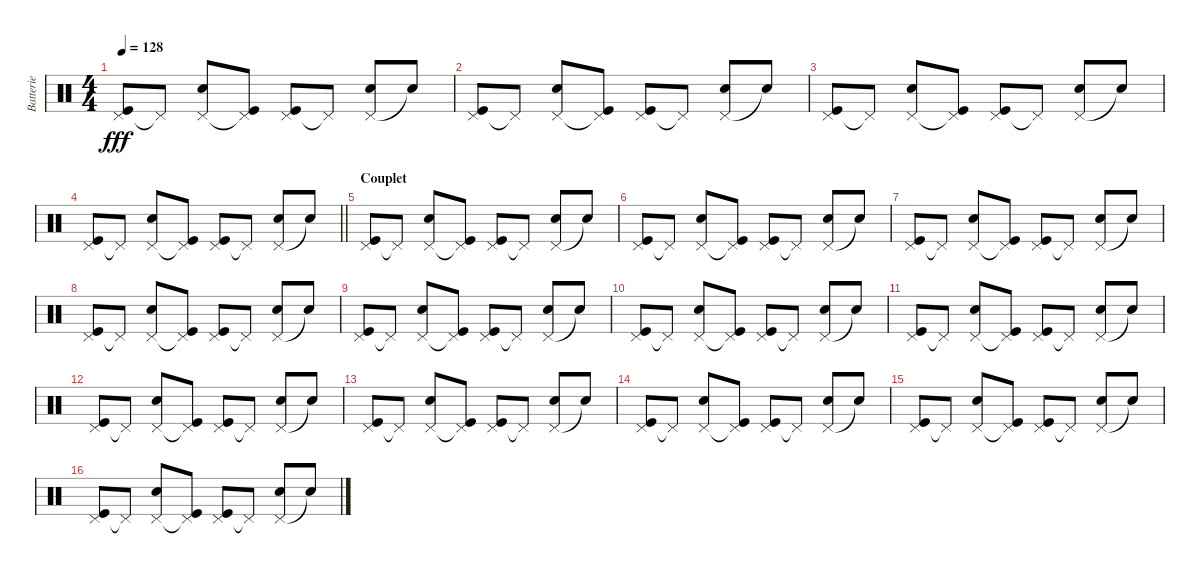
\track ("Batterie" "Batterie") {instrument percussion}
\staff {score}
\articulation defaults
\ts (4 4)
\section ("" "")
\tempo 128
\clef neutral
\ks c
("Pedal Hi-Hat (hit)" "Kick (hit)").8{dy fff} "Pedal Hi-Hat (hit)"{t}.8 ("Pedal Hi-Hat (hit)" "Electric Snare (hit)").8 ("Pedal Hi-Hat (hit)"{t} "Kick (hit)").8 ("Pedal Hi-Hat (hit)" "Kick (hit)").8 "Pedal Hi-Hat (hit)"{t}.8 ("Pedal Hi-Hat (hit)" "Electric Snare (hit)").8 "Snare (hit)"{t}.8 |
("Pedal Hi-Hat (hit)" "Kick (hit)").8 "Pedal Hi-Hat (hit)"{t}.8 ("Pedal Hi-Hat (hit)" "Electric Snare (hit)").8 ("Pedal Hi-Hat (hit)"{t} "Kick (hit)").8 ("Pedal Hi-Hat (hit)" "Kick (hit)").8 "Pedal Hi-Hat (hit)"{t}.8 ("Pedal Hi-Hat (hit)" "Electric Snare (hit)").8 "Snare (hit)"{t}.8 |
("Pedal Hi-Hat (hit)" "Kick (hit)").8 "Pedal Hi-Hat (hit)"{t}.8 ("Pedal Hi-Hat (hit)" "Electric Snare (hit)").8 ("Pedal Hi-Hat (hit)"{t} "Kick (hit)").8 ("Pedal Hi-Hat (hit)" "Kick (hit)").8 "Pedal Hi-Hat (hit)"{t}.8 ("Pedal Hi-Hat (hit)" "Electric Snare (hit)").8 "Snare (hit)"{t}.8 |
\barLineRight lightlight
("Pedal Hi-Hat (hit)" "Kick (hit)").8 "Pedal Hi-Hat (hit)"{t}.8 ("Pedal Hi-Hat (hit)" "Electric Snare (hit)").8 ("Pedal Hi-Hat (hit)"{t} "Kick (hit)").8 ("Pedal Hi-Hat (hit)" "Kick (hit)").8 "Pedal Hi-Hat (hit)"{t}.8 ("Pedal Hi-Hat (hit)" "Electric Snare (hit)").8 "Snare (hit)"{t}.8 |
\section ("" "Couplet")
("Pedal Hi-Hat (hit)" "Kick (hit)").8 "Pedal Hi-Hat (hit)"{t}.8 ("Pedal Hi-Hat (hit)" "Electric Snare (hit)").8 ("Pedal Hi-Hat (hit)"{t} "Kick (hit)").8 ("Pedal Hi-Hat (hit)" "Kick (hit)").8 "Pedal Hi-Hat (hit)"{t}.8 ("Pedal Hi-Hat (hit)" "Electric Snare (hit)").8 "Snare (hit)"{t}.8 |
("Pedal Hi-Hat (hit)" "Kick (hit)").8 "Pedal Hi-Hat (hit)"{t}.8 ("Pedal Hi-Hat (hit)" "Electric Snare (hit)").8 ("Pedal Hi-Hat (hit)"{t} "Kick (hit)").8 ("Pedal Hi-Hat (hit)" "Kick (hit)").8 "Pedal Hi-Hat (hit)"{t}.8 ("Pedal Hi-Hat (hit)" "Electric Snare (hit)").8 "Snare (hit)"{t}.8 |
("Pedal Hi-Hat (hit)" "Kick (hit)").8 "Pedal Hi-Hat (hit)"{t}.8 ("Pedal Hi-Hat (hit)" "Electric Snare (hit)").8 ("Pedal Hi-Hat (hit)"{t} "Kick (hit)").8 ("Pedal Hi-Hat (hit)" "Kick (hit)").8 "Pedal Hi-Hat (hit)"{t}.8 ("Pedal Hi-Hat (hit)" "Electric Snare (hit)").8 "Snare (hit)"{t}.8 |
("Pedal Hi-Hat (hit)" "Kick (hit)").8 "Pedal Hi-Hat (hit)"{t}.8 ("Pedal Hi-Hat (hit)" "Electric Snare (hit)").8 ("Pedal Hi-Hat (hit)"{t} "Kick (hit)").8 ("Pedal Hi-Hat (hit)" "Kick (hit)").8 "Pedal Hi-Hat (hit)"{t}.8 ("Pedal Hi-Hat (hit)" "Electric Snare (hit)").8 "Snare (hit)"{t}.8 |
("Pedal Hi-Hat (hit)" "Kick (hit)").8 "Pedal Hi-Hat (hit)"{t}.8 ("Pedal Hi-Hat (hit)" "Electric Snare (hit)").8 ("Pedal Hi-Hat (hit)"{t} "Kick (hit)").8 ("Pedal Hi-Hat (hit)" "Kick (hit)").8 "Pedal Hi-Hat (hit)"{t}.8 ("Pedal Hi-Hat (hit)" "Electric Snare (hit)").8 "Snare (hit)"{t}.8 |
("Pedal Hi-Hat (hit)" "Kick (hit)").8 "Pedal Hi-Hat (hit)"{t}.8 ("Pedal Hi-Hat (hit)" "Electric Snare (hit)").8 ("Pedal Hi-Hat (hit)"{t} "Kick (hit)").8 ("Pedal Hi-Hat (hit)" "Kick (hit)").8 "Pedal Hi-Hat (hit)"{t}.8 ("Pedal Hi-Hat (hit)" "Electric Snare (hit)").8 "Snare (hit)"{t}.8 |
("Pedal Hi-Hat (hit)" "Kick (hit)").8 "Pedal Hi-Hat (hit)"{t}.8 ("Pedal Hi-Hat (hit)" "Electric Snare (hit)").8 ("Pedal Hi-Hat (hit)"{t} "Kick (hit)").8 ("Pedal Hi-Hat (hit)" "Kick (hit)").8 "Pedal Hi-Hat (hit)"{t}.8 ("Pedal Hi-Hat (hit)" "Electric Snare (hit)").8 "Snare (hit)"{t}.8 |
("Pedal Hi-Hat (hit)" "Kick (hit)").8 "Pedal Hi-Hat (hit)"{t}.8 ("Pedal Hi-Hat (hit)" "Electric Snare (hit)").8 ("Pedal Hi-Hat (hit)"{t} "Kick (hit)").8 ("Pedal Hi-Hat (hit)" "Kick (hit)").8 "Pedal Hi-Hat (hit)"{t}.8 ("Pedal Hi-Hat (hit)" "Electric Snare (hit)").8 "Snare (hit)"{t}.8 |
("Pedal Hi-Hat (hit)" "Kick (hit)").8 "Pedal Hi-Hat (hit)"{t}.8 ("Pedal Hi-Hat (hit)" "Electric Snare (hit)").8 ("Pedal Hi-Hat (hit)"{t} "Kick (hit)").8 ("Pedal Hi-Hat (hit)" "Kick (hit)").8 "Pedal Hi-Hat (hit)"{t}.8 ("Pedal Hi-Hat (hit)" "Electric Snare (hit)").8 "Snare (hit)"{t}.8 |
("Pedal Hi-Hat (hit)" "Kick (hit)").8 "Pedal Hi-Hat (hit)"{t}.8 ("Pedal Hi-Hat (hit)" "Electric Snare (hit)").8 ("Pedal Hi-Hat (hit)"{t} "Kick (hit)").8 ("Pedal Hi-Hat (hit)" "Kick (hit)").8 "Pedal Hi-Hat (hit)"{t}.8 ("Pedal Hi-Hat (hit)" "Electric Snare (hit)").8 "Snare (hit)"{t}.8 |
("Pedal Hi-Hat (hit)" "Kick (hit)").8 "Pedal Hi-Hat (hit)"{t}.8 ("Pedal Hi-Hat (hit)" "Electric Snare (hit)").8 ("Pedal Hi-Hat (hit)"{t} "Kick (hit)").8 ("Pedal Hi-Hat (hit)" "Kick (hit)").8 "Pedal Hi-Hat (hit)"{t}.8 ("Pedal Hi-Hat (hit)" "Electric Snare (hit)").8 "Snare (hit)"{t}.8 |
("Pedal Hi-Hat (hit)" "Kick (hit)").8 "Pedal Hi-Hat (hit)"{t}.8 ("Pedal Hi-Hat (hit)" "Electric Snare (hit)").8 ("Pedal Hi-Hat (hit)"{t} "Kick (hit)").8 ("Pedal Hi-Hat (hit)" "Kick (hit)").8 "Pedal Hi-Hat (hit)"{t}.8 ("Pedal Hi-Hat (hit)" "Electric Snare (hit)").8 "Snare (hit)"{t}.8
